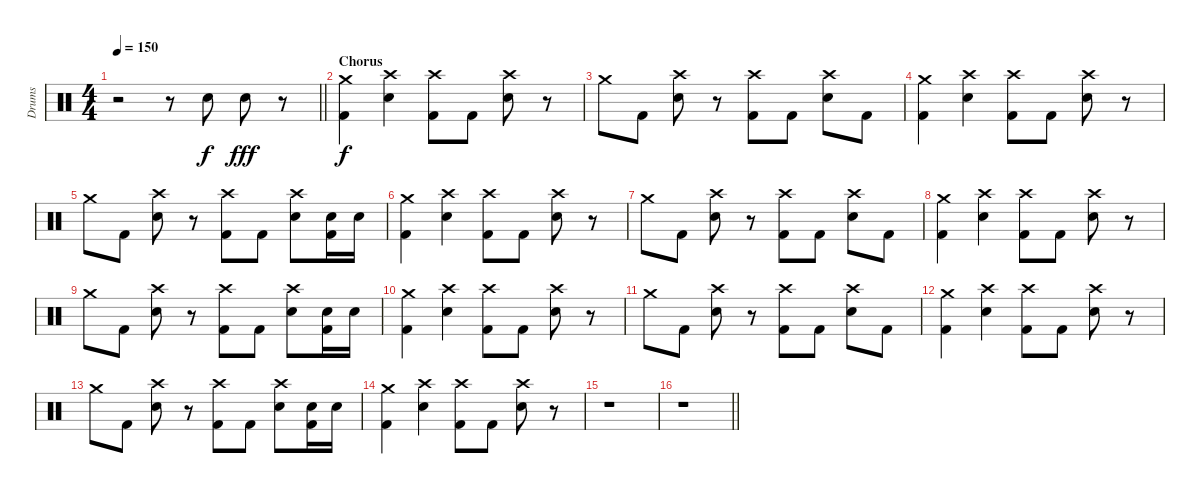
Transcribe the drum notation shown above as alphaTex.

\track ("Drums" "Drums") {instrument percussion}
\staff {score}
\articulation defaults
\ts (4 4)
\tempo 150
\clef neutral
\barLineRight lightlight
\ks c
r.2{dy f} r.8 "Electric Snare (hit)".8 "Electric Snare (hit)".8{dy fff} r.8 |
\section ("" "Chorus")
("Crash medium (hit)" "Kick (hit) 2").4{dy f} ("Crash high (hit)" "Electric Snare (hit)").4 ("Crash high (hit)" "Kick (hit) 2").8 "Kick (hit) 2".8 ("Crash high (hit)" "Electric Snare (hit)").8 r.8 |
"Crash medium (hit)".8 "Kick (hit) 2".8 ("Crash high (hit)" "Electric Snare (hit)").8 r.8 ("Crash high (hit)" "Kick (hit) 2").8 "Kick (hit) 2".8 ("Crash high (hit)" "Electric Snare (hit)").8 "Kick (hit) 2".8 |
("Crash medium (hit)" "Kick (hit) 2").4 ("Crash high (hit)" "Electric Snare (hit)").4 ("Crash high (hit)" "Kick (hit) 2").8 "Kick (hit) 2".8 ("Crash high (hit)" "Electric Snare (hit)").8 r.8 |
"Crash medium (hit)".8 "Kick (hit) 2".8 ("Crash high (hit)" "Electric Snare (hit)").8 r.8 ("Crash high (hit)" "Kick (hit) 2").8 "Kick (hit) 2".8 ("Crash high (hit)" "Electric Snare (hit)").8 ("Electric Snare (hit)" "Kick (hit) 2").16 "Electric Snare (hit)".16 |
("Crash medium (hit)" "Kick (hit) 2").4 ("Crash high (hit)" "Electric Snare (hit)").4 ("Crash high (hit)" "Kick (hit) 2").8 "Kick (hit) 2".8 ("Crash high (hit)" "Electric Snare (hit)").8 r.8 |
"Crash medium (hit)".8 "Kick (hit) 2".8 ("Crash high (hit)" "Electric Snare (hit)").8 r.8 ("Crash high (hit)" "Kick (hit) 2").8 "Kick (hit) 2".8 ("Crash high (hit)" "Electric Snare (hit)").8 "Kick (hit) 2".8 |
("Crash medium (hit)" "Kick (hit) 2").4 ("Crash high (hit)" "Electric Snare (hit)").4 ("Crash high (hit)" "Kick (hit) 2").8 "Kick (hit) 2".8 ("Crash high (hit)" "Electric Snare (hit)").8 r.8 |
"Crash medium (hit)".8 "Kick (hit) 2".8 ("Crash high (hit)" "Electric Snare (hit)").8 r.8 ("Crash high (hit)" "Kick (hit) 2").8 "Kick (hit) 2".8 ("Crash high (hit)" "Electric Snare (hit)").8 ("Electric Snare (hit)" "Kick (hit) 2").16 "Electric Snare (hit)".16 |
("Crash medium (hit)" "Kick (hit) 2").4 ("Crash high (hit)" "Electric Snare (hit)").4 ("Crash high (hit)" "Kick (hit) 2").8 "Kick (hit) 2".8 ("Crash high (hit)" "Electric Snare (hit)").8 r.8 |
"Crash medium (hit)".8 "Kick (hit) 2".8 ("Crash high (hit)" "Electric Snare (hit)").8 r.8 ("Crash high (hit)" "Kick (hit) 2").8 "Kick (hit) 2".8 ("Crash high (hit)" "Electric Snare (hit)").8 "Kick (hit) 2".8 |
("Crash medium (hit)" "Kick (hit) 2").4 ("Crash high (hit)" "Electric Snare (hit)").4 ("Crash high (hit)" "Kick (hit) 2").8 "Kick (hit) 2".8 ("Crash high (hit)" "Electric Snare (hit)").8 r.8 |
"Crash medium (hit)".8 "Kick (hit) 2".8 ("Crash high (hit)" "Electric Snare (hit)").8 r.8 ("Crash high (hit)" "Kick (hit) 2").8 "Kick (hit) 2".8 ("Crash high (hit)" "Electric Snare (hit)").8 ("Electric Snare (hit)" "Kick (hit) 2").16 "Electric Snare (hit)".16 |
("Crash medium (hit)" "Kick (hit) 2").4 ("Crash high (hit)" "Electric Snare (hit)").4 ("Crash high (hit)" "Kick (hit) 2").8 "Kick (hit) 2".8 ("Crash high (hit)" "Electric Snare (hit)").8 r.8 |
r.1 |
\barLineRight lightlight
r.1
